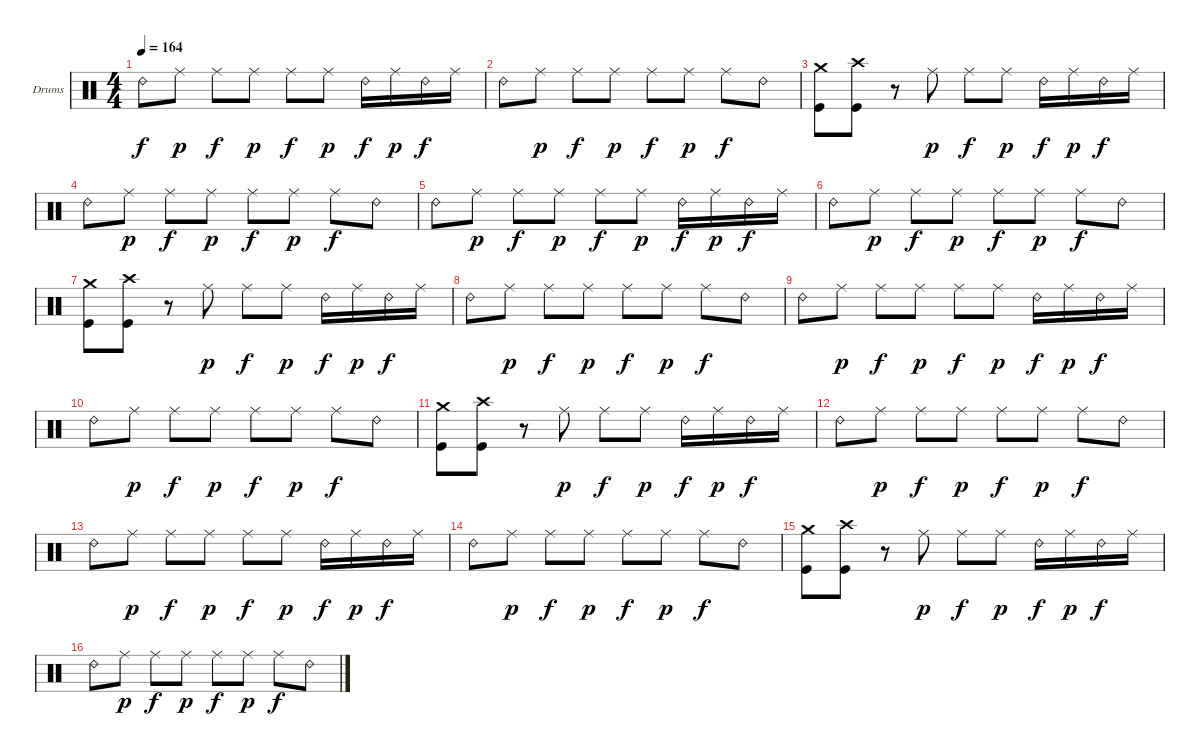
\defaultSystemsLayout 4
\bracketExtendMode nobrackets
\firstSystemTrackNameOrientation horizontal
\otherSystemsTrackNameOrientation horizontal
\track ("Dave Abbruzzese" "Drums") {solo instrument percussion}
\staff {score}
\articulation defaults
\ts (4 4)
\tempo 164
\clef neutral
\ks c "Ride (bell) 2".8{dy f} "Ride (middle)".8{dy p} "Ride (middle)".8{dy f} "Ride (middle)".8{dy p} "Ride (middle)".8{dy f} "Ride (middle)".8{dy p} "Ride (bell) 2".16{dy f} "Ride (middle)".16{dy p} "Ride (bell) 2".16{dy f} "Ride (middle)".16
|
"Ride (bell) 2".8 "Ride (middle)".8{dy p} "Ride (middle)".8{dy f} "Ride (middle)".8{dy p} "Ride (middle)".8{dy f} "Ride (middle)".8{dy p} "Ride (middle)".8{dy f} "Ride (bell) 2".8 |
("Crash medium (hit)" "Kick (hit)").8 ("Crash high (hit)" "Kick (hit)").8 r.8 "Ride (middle)".8{dy p} "Ride (middle)".8{dy f} "Ride (middle)".8{dy p} "Ride (bell) 2".16{dy f} "Ride (middle)".16{dy p} "Ride (bell) 2".16{dy f} "Ride (middle)".16 |
"Ride (bell) 2".8 "Ride (middle)".8{dy p} "Ride (middle)".8{dy f} "Ride (middle)".8{dy p} "Ride (middle)".8{dy f} "Ride (middle)".8{dy p} "Ride (middle)".8{dy f} "Ride (bell) 2".8 |
"Ride (bell) 2".8 "Ride (middle)".8{dy p} "Ride (middle)".8{dy f} "Ride (middle)".8{dy p} "Ride (middle)".8{dy f} "Ride (middle)".8{dy p} "Ride (bell) 2".16{dy f} "Ride (middle)".16{dy p} "Ride (bell) 2".16{dy f} "Ride (middle)".16 |
"Ride (bell) 2".8 "Ride (middle)".8{dy p} "Ride (middle)".8{dy f} "Ride (middle)".8{dy p} "Ride (middle)".8{dy f} "Ride (middle)".8{dy p} "Ride (middle)".8{dy f} "Ride (bell) 2".8 |
("Crash medium (hit)" "Kick (hit)").8 ("Crash high (hit)" "Kick (hit)").8 r.8 "Ride (middle)".8{dy p} "Ride (middle)".8{dy f} "Ride (middle)".8{dy p} "Ride (bell) 2".16{dy f} "Ride (middle)".16{dy p} "Ride (bell) 2".16{dy f} "Ride (middle)".16 |
"Ride (bell) 2".8 "Ride (middle)".8{dy p} "Ride (middle)".8{dy f} "Ride (middle)".8{dy p} "Ride (middle)".8{dy f} "Ride (middle)".8{dy p} "Ride (middle)".8{dy f} "Ride (bell) 2".8 |
"Ride (bell) 2".8 "Ride (middle)".8{dy p} "Ride (middle)".8{dy f} "Ride (middle)".8{dy p} "Ride (middle)".8{dy f} "Ride (middle)".8{dy p} "Ride (bell) 2".16{dy f} "Ride (middle)".16{dy p} "Ride (bell) 2".16{dy f} "Ride (middle)".16 |
"Ride (bell) 2".8 "Ride (middle)".8{dy p} "Ride (middle)".8{dy f} "Ride (middle)".8{dy p} "Ride (middle)".8{dy f} "Ride (middle)".8{dy p} "Ride (middle)".8{dy f} "Ride (bell) 2".8 |
("Crash medium (hit)" "Kick (hit)").8 ("Crash high (hit)" "Kick (hit)").8 r.8 "Ride (middle)".8{dy p} "Ride (middle)".8{dy f} "Ride (middle)".8{dy p} "Ride (bell) 2".16{dy f} "Ride (middle)".16{dy p} "Ride (bell) 2".16{dy f} "Ride (middle)".16 |
"Ride (bell) 2".8 "Ride (middle)".8{dy p} "Ride (middle)".8{dy f} "Ride (middle)".8{dy p} "Ride (middle)".8{dy f} "Ride (middle)".8{dy p} "Ride (middle)".8{dy f} "Ride (bell) 2".8 |
"Ride (bell) 2".8 "Ride (middle)".8{dy p} "Ride (middle)".8{dy f} "Ride (middle)".8{dy p} "Ride (middle)".8{dy f} "Ride (middle)".8{dy p} "Ride (bell) 2".16{dy f} "Ride (middle)".16{dy p} "Ride (bell) 2".16{dy f} "Ride (middle)".16 |
"Ride (bell) 2".8 "Ride (middle)".8{dy p} "Ride (middle)".8{dy f} "Ride (middle)".8{dy p} "Ride (middle)".8{dy f} "Ride (middle)".8{dy p} "Ride (middle)".8{dy f} "Ride (bell) 2".8 |
("Crash medium (hit)" "Kick (hit)").8 ("Crash high (hit)" "Kick (hit)").8 r.8 "Ride (middle)".8{dy p} "Ride (middle)".8{dy f} "Ride (middle)".8{dy p} "Ride (bell) 2".16{dy f} "Ride (middle)".16{dy p} "Ride (bell) 2".16{dy f} "Ride (middle)".16 |
"Ride (bell) 2".8 "Ride (middle)".8{dy p} "Ride (middle)".8{dy f} "Ride (middle)".8{dy p} "Ride (middle)".8{dy f} "Ride (middle)".8{dy p} "Ride (middle)".8{dy f} "Ride (bell) 2".8
